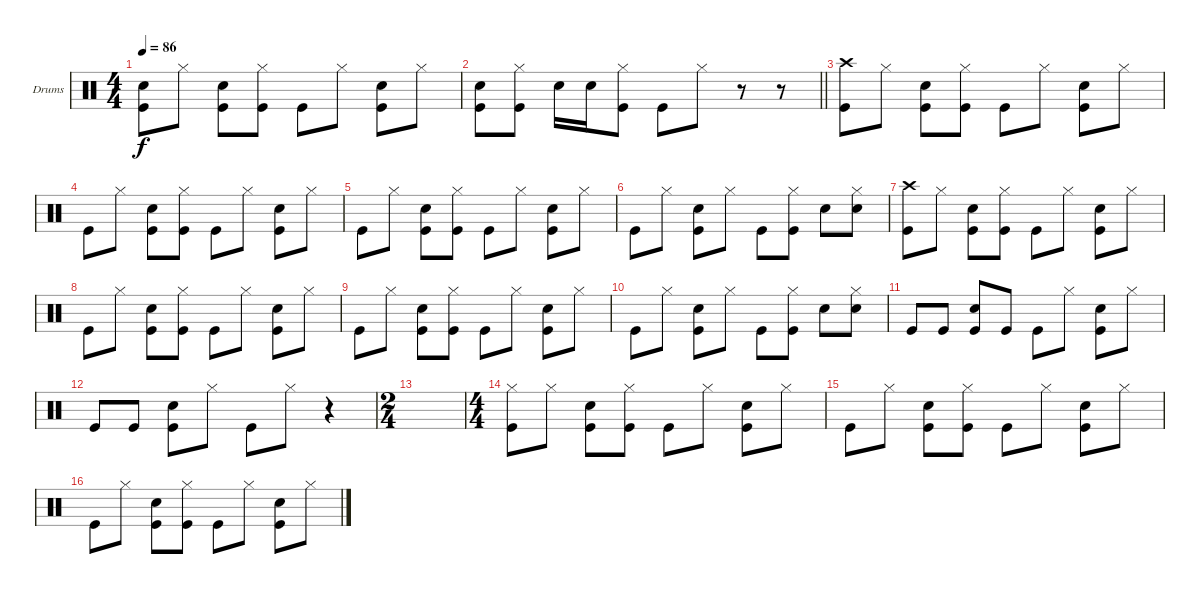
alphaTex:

\defaultSystemsLayout 4
\bracketExtendMode groupsimilarinstruments
\firstSystemTrackNameOrientation horizontal
\otherSystemsTrackNameOrientation horizontal
\track ("Drumkit" "Drums") {instrument percussion}
\staff {score}
\articulation defaults
\ts (4 4)
\tempo 86
\clef neutral
\scale
0.333333
\ks c
("Snare (hit) 2" "Kick (hit)").8{dy f} "Hi-Hat (closed)".8 ("Snare (hit) 2" "Kick (hit)").8 ("Hi-Hat (closed)" "Kick (hit)").8 "Kick (hit)".8 "Hi-Hat (closed)".8 ("Snare (hit) 2" "Kick (hit)").8 "Hi-Hat (closed)".8 |
\scale
0.333333
\barLineRight lightlight
("Snare (hit) 2" "Kick (hit)").8 ("Hi-Hat (closed)" "Kick (hit)").8 "Snare (hit) 2".16 "Snare (hit) 2".16 ("Hi-Hat (closed)" "Kick (hit)").8 "Kick (hit)".8 "Hi-Hat (closed)".8 r.8 r.8 |
\scale
0.333333 ("Crash high (hit)" "Kick (hit)").8 "Hi-Hat (closed)".8 ("Snare (hit) 2" "Kick (hit)").8 ("Hi-Hat (closed)" "Kick (hit)").8 "Kick (hit)".8 "Hi-Hat (closed)".8 ("Snare (hit) 2" "Kick (hit)").8 "Hi-Hat (closed)".8 |
\scale
0.333333 "Kick (hit)".8 "Hi-Hat (closed)".8 ("Snare (hit) 2" "Kick (hit)").8 ("Hi-Hat (closed)" "Kick (hit)").8 "Kick (hit)".8 "Hi-Hat (closed)".8 ("Snare (hit) 2" "Kick (hit)").8 "Hi-Hat (closed)".8 |
\scale
0.333333 "Kick (hit)".8 "Hi-Hat (closed)".8 ("Snare (hit) 2" "Kick (hit)").8 ("Hi-Hat (closed)" "Kick (hit)").8 "Kick (hit)".8 "Hi-Hat (closed)".8 ("Snare (hit) 2" "Kick (hit)").8 "Hi-Hat (closed)".8 |
\scale
0.333333 "Kick (hit)".8 "Hi-Hat (closed)".8 ("Snare (hit) 2" "Kick (hit)").8 "Hi-Hat (closed)".8 "Kick (hit)".8 ("Hi-Hat (closed)" "Kick (hit)").8 "Snare (hit) 2".8 ("Hi-Hat (closed)" "Snare (hit) 2").8 |
\scale
0.333333 ("Crash high (hit)" "Kick (hit)").8 "Hi-Hat (closed)".8 ("Snare (hit) 2" "Kick (hit)").8 ("Hi-Hat (closed)" "Kick (hit)").8 "Kick (hit)".8 "Hi-Hat (closed)".8 ("Snare (hit) 2" "Kick (hit)").8 "Hi-Hat (closed)".8 |
\scale
0.333333 "Kick (hit)".8 "Hi-Hat (closed)".8 ("Snare (hit) 2" "Kick (hit)").8 ("Hi-Hat (closed)" "Kick (hit)").8 "Kick (hit)".8 "Hi-Hat (closed)".8 ("Snare (hit) 2" "Kick (hit)").8 "Hi-Hat (closed)".8 |
\scale
0.333333 "Kick (hit)".8 "Hi-Hat (closed)".8 ("Snare (hit) 2" "Kick (hit)").8 ("Hi-Hat (closed)" "Kick (hit)").8 "Kick (hit)".8 "Hi-Hat (closed)".8 ("Snare (hit) 2" "Kick (hit)").8 "Hi-Hat (closed)".8 |
\scale
0.333333 "Kick (hit)".8 "Hi-Hat (closed)".8 ("Snare (hit) 2" "Kick (hit)").8 "Hi-Hat (closed)".8 "Kick (hit)".8 ("Hi-Hat (closed)" "Kick (hit)").8 "Snare (hit) 2".8 ("Hi-Hat (closed)" "Snare (hit) 2").8 |
\scale
0.333333 "Kick (hit)".8 "Kick (hit)".8 ("Snare (hit) 2" "Kick (hit)").8 "Kick (hit)".8 "Kick (hit)".8 "Hi-Hat (closed)".8 ("Snare (hit) 2" "Kick (hit)").8 "Hi-Hat (closed)".8 |
\scale
0.218391 "Kick (hit)".8 "Kick (hit)".8 ("Snare (hit) 2" "Kick (hit)").8 "Hi-Hat (closed)".8 "Kick (hit)".8 "Hi-Hat (closed)".8 r.4 |
\ts (2 4)
\scale
0.390805 |
\ts (4 4)
\scale
0.390805 ("Hi-Hat (closed)" "Kick (hit)").8 "Hi-Hat (closed)".8 ("Snare (hit) 2" "Kick (hit)").8 ("Hi-Hat (closed)" "Kick (hit)").8 "Kick (hit)".8 "Hi-Hat (closed)".8 ("Snare (hit) 2" "Kick (hit)").8 "Hi-Hat (closed)".8 |
\scale
0.333333 "Kick (hit)".8 "Hi-Hat (closed)".8 ("Snare (hit) 2" "Kick (hit)").8 ("Hi-Hat (closed)" "Kick (hit)").8 "Kick (hit)".8 "Hi-Hat (closed)".8 ("Snare (hit) 2" "Kick (hit)").8 "Hi-Hat (closed)".8 |
\scale
0.333333 "Kick (hit)".8 "Hi-Hat (closed)".8 ("Snare (hit) 2" "Kick (hit)").8 ("Hi-Hat (closed)" "Kick (hit)").8 "Kick (hit)".8 "Hi-Hat (closed)".8 ("Snare (hit) 2" "Kick (hit)").8 "Hi-Hat (closed)".8
